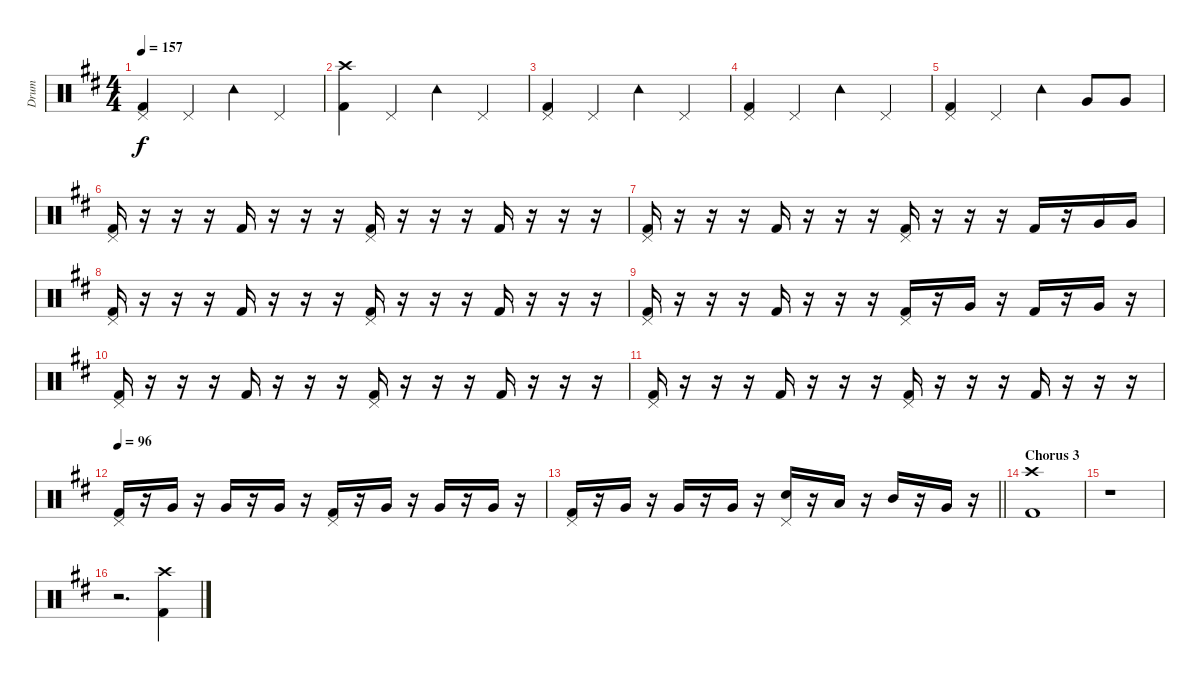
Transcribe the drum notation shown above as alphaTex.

\track ("Drum" "Drum") {instrument percussion}
\staff {score}
\articulation defaults
\ts (4 4)
\tempo 157
\clef neutral
\ks d
("Kick (hit) 2" "Pedal Hi-Hat (hit)").4{dy f} "Pedal Hi-Hat (hit)".4 "Tambourine (hit)".4 "Pedal Hi-Hat (hit)".4 |
("Kick (hit) 2" "Crash high (hit)").4 "Pedal Hi-Hat (hit)".4 "Tambourine (hit)".4 "Pedal Hi-Hat (hit)".4 |
("Kick (hit) 2" "Pedal Hi-Hat (hit)").4 "Pedal Hi-Hat (hit)".4 "Tambourine (hit)".4 "Pedal Hi-Hat (hit)".4 |
("Kick (hit) 2" "Pedal Hi-Hat (hit)").4 "Pedal Hi-Hat (hit)".4 "Tambourine (hit)".4 "Pedal Hi-Hat (hit)".4 |
("Kick (hit) 2" "Pedal Hi-Hat (hit)").4 "Pedal Hi-Hat (hit)".4 "Tambourine (hit)".4 "Very Low Tom (hit)".8 "Very Low Tom (hit)".8 |
("Kick (hit) 2" "Pedal Hi-Hat (hit)").16 r.16 r.16 r.16 "Kick (hit) 2".16 r.16 r.16 r.16 ("Kick (hit) 2" "Pedal Hi-Hat (hit)").16 r.16 r.16 r.16 "Kick (hit) 2".16 r.16 r.16 r.16 |
("Kick (hit) 2" "Pedal Hi-Hat (hit)").16 r.16 r.16 r.16 "Kick (hit) 2".16 r.16 r.16 r.16 ("Kick (hit) 2" "Pedal Hi-Hat (hit)").16 r.16 r.16 r.16 "Kick (hit) 2".16 r.16 "Very Low Tom (hit)".16 "Very Low Tom (hit)".16 |
("Kick (hit) 2" "Pedal Hi-Hat (hit)").16 r.16 r.16 r.16 "Kick (hit) 2".16 r.16 r.16 r.16 ("Kick (hit) 2" "Pedal Hi-Hat (hit)").16 r.16 r.16 r.16 "Kick (hit) 2".16 r.16 r.16 r.16 |
("Kick (hit) 2" "Pedal Hi-Hat (hit)").16 r.16 r.16 r.16 "Kick (hit) 2".16 r.16 r.16 r.16 ("Kick (hit) 2" "Pedal Hi-Hat (hit)").16 r.16 "Very Low Tom (hit)".16 r.16 "Kick (hit) 2".16 r.16 "Very Low Tom (hit)".16 r.16 |
("Kick (hit) 2" "Pedal Hi-Hat (hit)").16 r.16 r.16 r.16 "Kick (hit) 2".16 r.16 r.16 r.16 ("Kick (hit) 2" "Pedal Hi-Hat (hit)").16 r.16 r.16 r.16 "Kick (hit) 2".16 r.16 r.16 r.16 |
("Kick (hit) 2" "Pedal Hi-Hat (hit)").16 r.16 r.16 r.16 "Kick (hit) 2".16 r.16 r.16 r.16 ("Kick (hit) 2" "Pedal Hi-Hat (hit)").16 r.16 r.16 r.16 "Kick (hit) 2".16 r.16 r.16 r.16 |
\tempo 96
("Kick (hit) 2" "Pedal Hi-Hat (hit)").16 r.16 "Very Low Tom (hit)".16 r.16 "Very Low Tom (hit)".16 r.16 "Very Low Tom (hit)".16 r.16 ("Kick (hit) 2" "Pedal Hi-Hat (hit)").16 r.16 "Very Low Tom (hit)".16 r.16 "Very Low Tom (hit)".16 r.16 "Very Low Tom (hit)".16 r.16 |
\barLineRight lightlight
("Kick (hit) 2" "Pedal Hi-Hat (hit)").16 r.16 "Very Low Tom (hit)".16 r.16 "Very Low Tom (hit)".16 r.16 "Very Low Tom (hit)".16 r.16 ("Electric Snare (hit)" "Pedal Hi-Hat (hit)").16 r.16 "Low Tom (hit)".16 r.16 "Mid Tom (hit)".16 r.16 "Very Low Tom (hit)".16 r.16 |
\section ("" "Chorus 3")
("Kick (hit) 2" "Crash high (hit)").1 |
r.1 |
r.2{d} ("Kick (hit) 2" "Crash high (hit)").4
